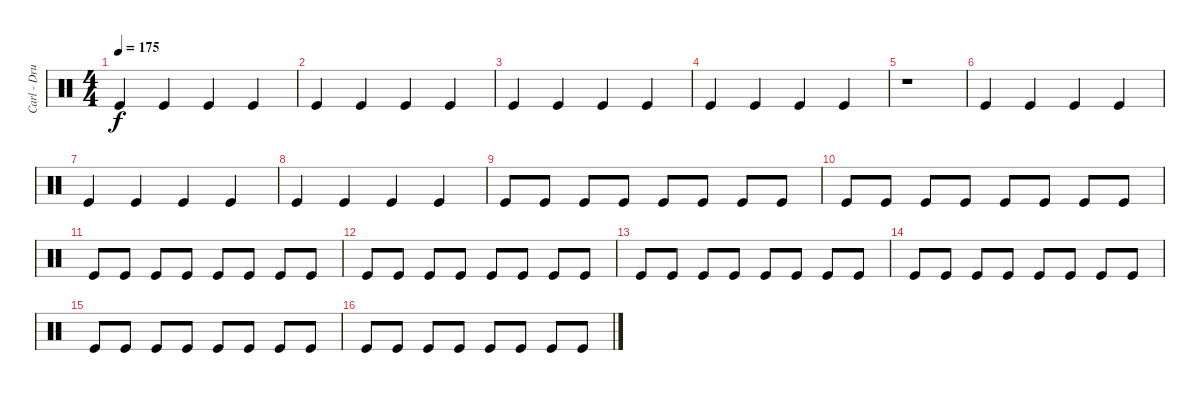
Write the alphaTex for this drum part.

\track ("Carl - Drums I" "Carl - Dru") {instrument percussion}
\staff {score}
\articulation defaults
\ts (4 4)
\tempo 175
\clef neutral
\ks c "Kick (hit)".4{dy f} "Kick (hit)".4 "Kick (hit)".4 "Kick (hit)".4
|
"Kick (hit)".4 "Kick (hit)".4 "Kick (hit)".4 "Kick (hit)".4 |
"Kick (hit)".4 "Kick (hit)".4 "Kick (hit)".4 "Kick (hit)".4 |
"Kick (hit)".4 "Kick (hit)".4 "Kick (hit)".4 "Kick (hit)".4 |
r.1 |
"Kick (hit)".4 "Kick (hit)".4 "Kick (hit)".4 "Kick (hit)".4 |
"Kick (hit)".4 "Kick (hit)".4 "Kick (hit)".4 "Kick (hit)".4 |
"Kick (hit)".4 "Kick (hit)".4 "Kick (hit)".4 "Kick (hit)".4 |
"Kick (hit)".8 "Kick (hit)".8 "Kick (hit)".8 "Kick (hit)".8 "Kick (hit)".8 "Kick (hit)".8 "Kick (hit)".8 "Kick (hit)".8 |
"Kick (hit)".8 "Kick (hit)".8 "Kick (hit)".8 "Kick (hit)".8 "Kick (hit)".8 "Kick (hit)".8 "Kick (hit)".8 "Kick (hit)".8 |
"Kick (hit)".8 "Kick (hit)".8 "Kick (hit)".8 "Kick (hit)".8 "Kick (hit)".8 "Kick (hit)".8 "Kick (hit)".8 "Kick (hit)".8 |
"Kick (hit)".8 "Kick (hit)".8 "Kick (hit)".8 "Kick (hit)".8 "Kick (hit)".8 "Kick (hit)".8 "Kick (hit)".8 "Kick (hit)".8 |
"Kick (hit)".8 "Kick (hit)".8 "Kick (hit)".8 "Kick (hit)".8 "Kick (hit)".8 "Kick (hit)".8 "Kick (hit)".8 "Kick (hit)".8 |
"Kick (hit)".8 "Kick (hit)".8 "Kick (hit)".8 "Kick (hit)".8 "Kick (hit)".8 "Kick (hit)".8 "Kick (hit)".8 "Kick (hit)".8 |
"Kick (hit)".8 "Kick (hit)".8 "Kick (hit)".8 "Kick (hit)".8 "Kick (hit)".8 "Kick (hit)".8 "Kick (hit)".8 "Kick (hit)".8 |
"Kick (hit)".8 "Kick (hit)".8 "Kick (hit)".8 "Kick (hit)".8 "Kick (hit)".8 "Kick (hit)".8 "Kick (hit)".8 "Kick (hit)".8
